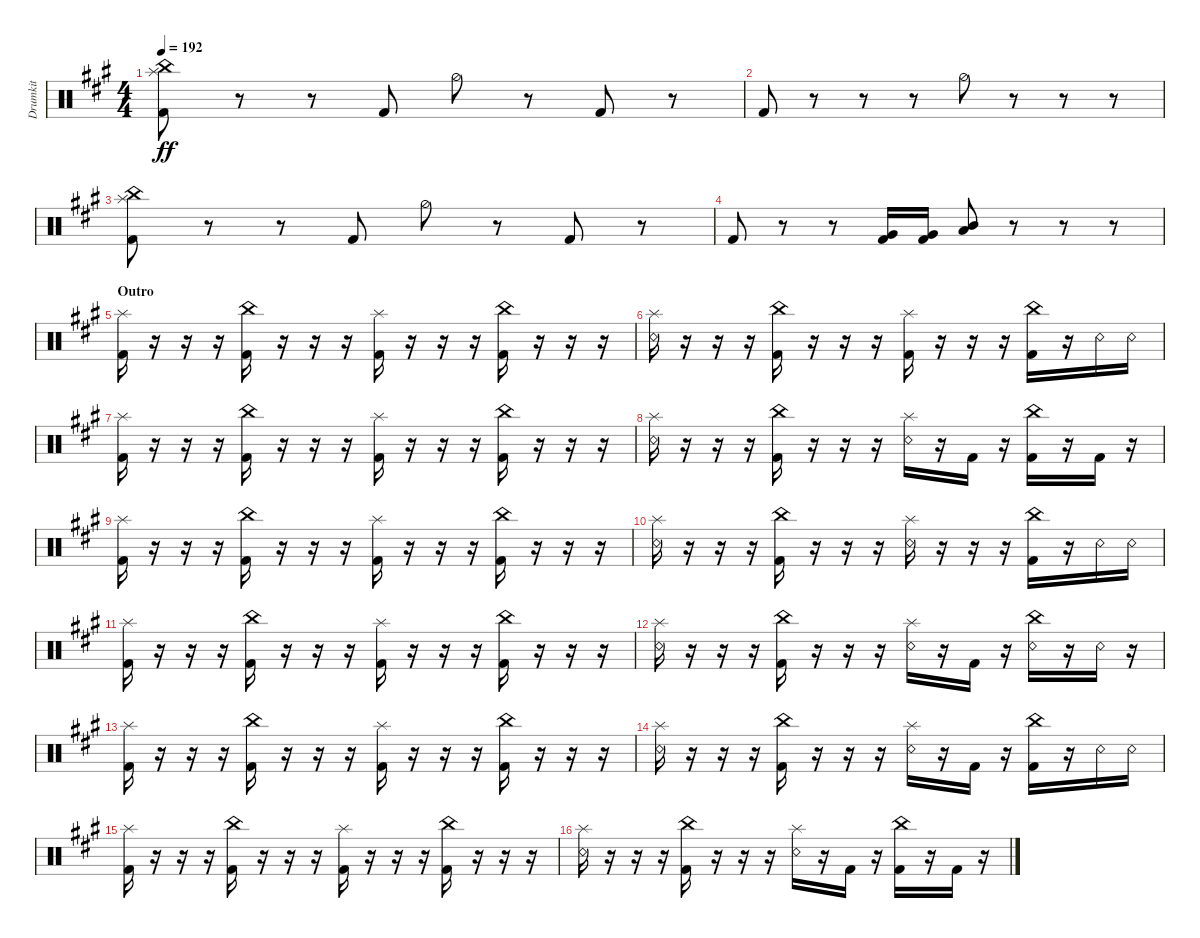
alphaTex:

\track ("Drumkit" "Drumkit") {instrument percussion}
\staff {score}
\articulation defaults
\ts (4 4)
\tempo 192
\clef neutral
\ks a
("Kick (hit) 2" "China (hit)" "Splash (hit)").8{dy ff} r.8 r.8 "Kick (hit) 2".8 "Hi-Hat (half)".8 r.8 "Kick (hit) 2".8 r.8 |
"Kick (hit) 2".8 r.8 r.8 r.8 "Hi-Hat (half)".8 r.8 r.8 r.8 |
("Kick (hit) 2" "China (hit)" "Splash (hit)").8 r.8 r.8 "Kick (hit) 2".8 "Hi-Hat (half)".8 r.8 "Kick (hit) 2".8 r.8 |
"Kick (hit) 2".8 r.8 r.8 ("Kick (hit) 2" "Very Low Tom (hit)").16 ("Kick (hit) 2" "Very Low Tom (hit)").16 ("Mid Tom (hit)" "Low Tom (hit)").8 r.8 r.8 r.8 |
\section ("" "Outro")
("Kick (hit) 2" "Splash (hit)").16{txt ""} r.16 r.16 r.16 ("Kick (hit) 2" "China (hit)").16 r.16 r.16 r.16 ("Kick (hit) 2" "Splash (hit)").16 r.16 r.16 r.16 ("Kick (hit) 2" "China (hit)").16 r.16 r.16 r.16 |
("Snare (rim shot)" "Splash (hit)").16 r.16 r.16 r.16 ("Kick (hit) 2" "China (hit)").16 r.16 r.16 r.16 ("Kick (hit) 2" "Splash (hit)").16 r.16 r.16 r.16 ("Kick (hit) 2" "China (hit)").16 r.16 "Snare (rim shot)".16 "Snare (rim shot)".16 |
("Kick (hit) 2" "Splash (hit)").16 r.16 r.16 r.16 ("Kick (hit) 2" "China (hit)").16 r.16 r.16 r.16 ("Kick (hit) 2" "Splash (hit)").16 r.16 r.16 r.16 ("Kick (hit) 2" "China (hit)").16 r.16 r.16 r.16 |
("Snare (rim shot)" "Splash (hit)").16 r.16 r.16 r.16 ("Kick (hit) 2" "China (hit)").16 r.16 r.16 r.16 ("Splash (hit)" "Snare (rim shot)").16 r.16 "Kick (hit) 2".16 r.16 ("Kick (hit) 2" "China (hit)").16 r.16 "Kick (hit) 2".16 r.16 |
("Kick (hit) 2" "Splash (hit)").16 r.16 r.16 r.16 ("Kick (hit) 2" "China (hit)").16 r.16 r.16 r.16 ("Kick (hit) 2" "Splash (hit)").16 r.16 r.16 r.16 ("Kick (hit) 2" "China (hit)").16 r.16 r.16 r.16 |
("Snare (rim shot)" "Splash (hit)").16 r.16 r.16 r.16 ("Kick (hit) 2" "China (hit)").16 r.16 r.16 r.16 ("Splash (hit)" "Snare (rim shot)").16 r.16 r.16 r.16 ("Kick (hit) 2" "China (hit)").16 r.16 "Snare (rim shot)".16 "Snare (rim shot)".16 |
("Kick (hit) 2" "Splash (hit)").16 r.16 r.16 r.16 ("Kick (hit) 2" "China (hit)").16 r.16 r.16 r.16 ("Kick (hit) 2" "Splash (hit)").16 r.16 r.16 r.16 ("Kick (hit) 2" "China (hit)").16 r.16 r.16 r.16 |
("Snare (rim shot)" "Splash (hit)").16 r.16 r.16 r.16 ("Kick (hit) 2" "China (hit)").16 r.16 r.16 r.16 ("Splash (hit)" "Snare (rim shot)").16 r.16 "Kick (hit) 2".16 r.16 ("China (hit)" "Snare (rim shot)").16 r.16 "Snare (rim shot)".16 r.16 |
("Kick (hit) 2" "Splash (hit)").16 r.16 r.16 r.16 ("Kick (hit) 2" "China (hit)").16 r.16 r.16 r.16 ("Kick (hit) 2" "Splash (hit)").16 r.16 r.16 r.16 ("Kick (hit) 2" "China (hit)").16 r.16 r.16 r.16 |
("Snare (rim shot)" "Splash (hit)").16 r.16 r.16 r.16 ("Kick (hit) 2" "China (hit)").16 r.16 r.16 r.16 ("Splash (hit)" "Snare (rim shot)").16 r.16 "Kick (hit) 2".16 r.16 ("Kick (hit) 2" "China (hit)").16 r.16 "Snare (rim shot)".16 "Snare (rim shot)".16 |
("Kick (hit) 2" "Splash (hit)").16 r.16 r.16 r.16 ("Kick (hit) 2" "China (hit)").16 r.16 r.16 r.16 ("Kick (hit) 2" "Splash (hit)").16 r.16 r.16 r.16 ("Kick (hit) 2" "China (hit)").16 r.16 r.16 r.16 |
("Snare (rim shot)" "Splash (hit)").16 r.16 r.16 r.16 ("Kick (hit) 2" "China (hit)").16 r.16 r.16 r.16 ("Splash (hit)" "Snare (rim shot)").16 r.16 "Kick (hit) 2".16 r.16 ("China (hit)" "Kick (hit) 2").16 r.16 "Kick (hit) 2".16 r.16
